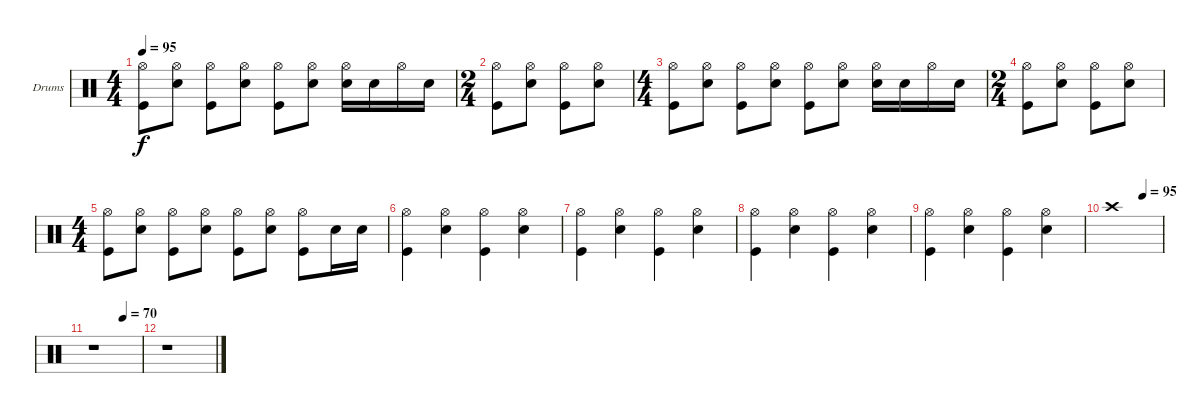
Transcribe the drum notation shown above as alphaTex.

\bracketExtendMode groupsimilarinstruments
\firstSystemTrackNameOrientation horizontal
\otherSystemsTrackNameOrientation horizontal
\chordDiagramsInScore
\track ("Drumkit" "Drums") {instrument percussion}
\staff {score}
\articulation defaults
\ts (4 4)
\tempo 95
\clef neutral
\ks c
("Hi-Hat (open)" "Kick (hit)").8{dy f} ("Hi-Hat (open)" "Snare (hit) 2").8 ("Hi-Hat (open)" "Kick (hit)").8 ("Hi-Hat (open)" "Snare (hit) 2").8 ("Hi-Hat (open)" "Kick (hit)").8 ("Hi-Hat (open)" "Snare (hit) 2").8 ("Hi-Hat (open)" "Snare (hit) 2").16 "Snare (hit) 2".16 "Hi-Hat (open)".16 "Snare (hit) 2".16 |
\ts (2 4)
("Hi-Hat (open)" "Kick (hit)").8 ("Hi-Hat (open)" "Snare (hit) 2").8 ("Hi-Hat (open)" "Kick (hit)").8 ("Hi-Hat (open)" "Snare (hit) 2").8 |
\ts (4 4)
("Hi-Hat (open)" "Kick (hit)").8 ("Hi-Hat (open)" "Snare (hit) 2").8 ("Hi-Hat (open)" "Kick (hit)").8 ("Hi-Hat (open)" "Snare (hit) 2").8 ("Hi-Hat (open)" "Kick (hit)").8 ("Hi-Hat (open)" "Snare (hit) 2").8 ("Hi-Hat (open)" "Snare (hit) 2").16 "Snare (hit) 2".16 "Hi-Hat (open)".16 "Snare (hit) 2".16 |
\ts (2 4)
("Hi-Hat (open)" "Kick (hit)").8 ("Hi-Hat (open)" "Snare (hit) 2").8 ("Hi-Hat (open)" "Kick (hit)").8 ("Hi-Hat (open)" "Snare (hit) 2").8 |
\ts (4 4)
("Hi-Hat (open)" "Kick (hit)").8 ("Hi-Hat (open)" "Snare (hit) 2").8 ("Hi-Hat (open)" "Kick (hit)").8 ("Hi-Hat (open)" "Snare (hit) 2").8 ("Hi-Hat (open)" "Kick (hit)").8 ("Hi-Hat (open)" "Snare (hit) 2").8 ("Hi-Hat (open)" "Kick (hit)").8 "Snare (hit) 2".16 "Snare (hit) 2".16 |
("Hi-Hat (open)" "Kick (hit)").4 ("Hi-Hat (open)" "Snare (hit) 2").4 ("Hi-Hat (open)" "Kick (hit)").4 ("Hi-Hat (open)" "Snare (hit) 2").4 |
("Hi-Hat (open)" "Kick (hit)").4 ("Hi-Hat (open)" "Snare (hit) 2").4 ("Hi-Hat (open)" "Kick (hit)").4 ("Hi-Hat (open)" "Snare (hit) 2").4 |
("Hi-Hat (open)" "Kick (hit)").4 ("Hi-Hat (open)" "Snare (hit) 2").4 ("Hi-Hat (open)" "Kick (hit)").4 ("Hi-Hat (open)" "Snare (hit) 2").4 |
("Hi-Hat (open)" "Kick (hit)").4 ("Hi-Hat (open)" "Snare (hit) 2").4 ("Hi-Hat (open)" "Kick (hit)").4 ("Hi-Hat (open)" "Snare (hit) 2").4 |
\tempo (95 0.625)
"Crash high (hit)".1 |
\tempo (70 0.625)
r.1 |
r.1
